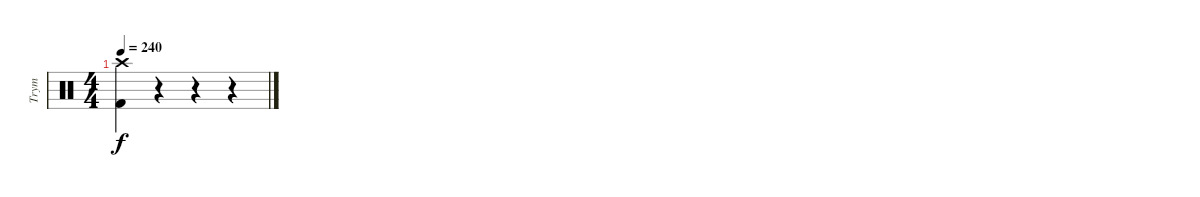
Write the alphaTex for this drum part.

\track ("Trym" "Trym") {instrument percussion}
\staff {score}
\articulation defaults
\ts (4 4)
\tempo 240
\clef neutral
\ks c
("Crash high (hit)" "Kick (hit) 2").4{dy f} r.4 r.4 r.4
